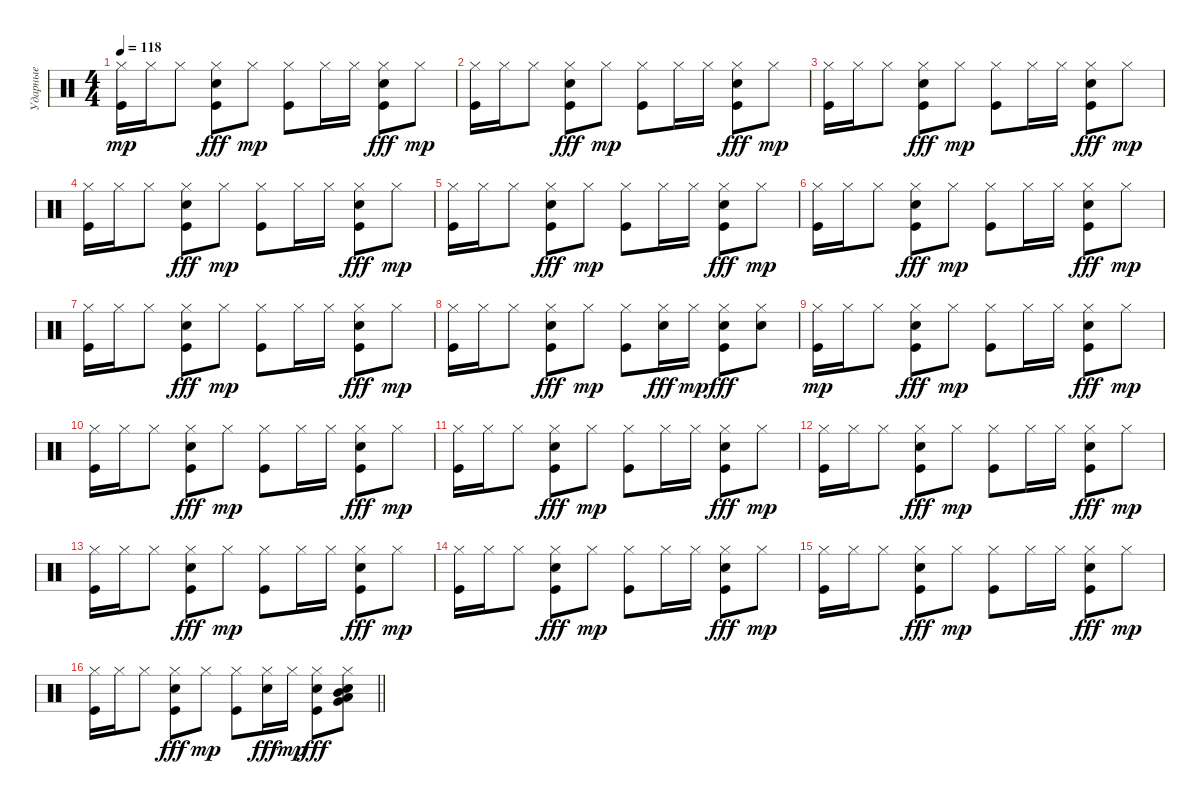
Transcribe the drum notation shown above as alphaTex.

\track ("Ударные" "Ударные") {instrument percussion}
\staff {score}
\articulation defaults
\ts (4 4)
\tempo 118
\clef neutral
\ks c
("Kick (hit)" "Hi-Hat (closed)").16{dy mp} "Hi-Hat (closed)".16 "Hi-Hat (closed)".8 ("Kick (hit)" "Hi-Hat (closed)" "Electric Snare (hit)").8{dy fff} "Hi-Hat (closed)".8{dy mp} ("Kick (hit)" "Hi-Hat (closed)").8 "Hi-Hat (closed)".16 "Hi-Hat (closed)".16 ("Hi-Hat (closed)" "Kick (hit)" "Electric Snare (hit)").8{dy fff} "Hi-Hat (closed)".8{dy mp} |
("Kick (hit)" "Hi-Hat (closed)").16 "Hi-Hat (closed)".16 "Hi-Hat (closed)".8 ("Kick (hit)" "Hi-Hat (closed)" "Electric Snare (hit)").8{dy fff} "Hi-Hat (closed)".8{dy mp} ("Kick (hit)" "Hi-Hat (closed)").8 "Hi-Hat (closed)".16 "Hi-Hat (closed)".16 ("Hi-Hat (closed)" "Kick (hit)" "Electric Snare (hit)").8{dy fff} "Hi-Hat (closed)".8{dy mp} |
("Kick (hit)" "Hi-Hat (closed)").16 "Hi-Hat (closed)".16 "Hi-Hat (closed)".8 ("Kick (hit)" "Hi-Hat (closed)" "Electric Snare (hit)").8{dy fff} "Hi-Hat (closed)".8{dy mp} ("Kick (hit)" "Hi-Hat (closed)").8 "Hi-Hat (closed)".16 "Hi-Hat (closed)".16 ("Hi-Hat (closed)" "Kick (hit)" "Electric Snare (hit)").8{dy fff} "Hi-Hat (closed)".8{dy mp} |
("Kick (hit)" "Hi-Hat (closed)").16 "Hi-Hat (closed)".16 "Hi-Hat (closed)".8 ("Kick (hit)" "Hi-Hat (closed)" "Electric Snare (hit)").8{dy fff} "Hi-Hat (closed)".8{dy mp} ("Kick (hit)" "Hi-Hat (closed)").8 "Hi-Hat (closed)".16 "Hi-Hat (closed)".16 ("Hi-Hat (closed)" "Kick (hit)" "Electric Snare (hit)").8{dy fff} "Hi-Hat (closed)".8{dy mp} |
("Kick (hit)" "Hi-Hat (closed)").16 "Hi-Hat (closed)".16 "Hi-Hat (closed)".8 ("Kick (hit)" "Hi-Hat (closed)" "Electric Snare (hit)").8{dy fff} "Hi-Hat (closed)".8{dy mp} ("Kick (hit)" "Hi-Hat (closed)").8 "Hi-Hat (closed)".16 "Hi-Hat (closed)".16 ("Hi-Hat (closed)" "Kick (hit)" "Electric Snare (hit)").8{dy fff} "Hi-Hat (closed)".8{dy mp} |
("Kick (hit)" "Hi-Hat (closed)").16 "Hi-Hat (closed)".16 "Hi-Hat (closed)".8 ("Kick (hit)" "Hi-Hat (closed)" "Electric Snare (hit)").8{dy fff} "Hi-Hat (closed)".8{dy mp} ("Kick (hit)" "Hi-Hat (closed)").8 "Hi-Hat (closed)".16 "Hi-Hat (closed)".16 ("Hi-Hat (closed)" "Kick (hit)" "Electric Snare (hit)").8{dy fff} "Hi-Hat (closed)".8{dy mp} |
("Kick (hit)" "Hi-Hat (closed)").16 "Hi-Hat (closed)".16 "Hi-Hat (closed)".8 ("Kick (hit)" "Hi-Hat (closed)" "Electric Snare (hit)").8{dy fff} "Hi-Hat (closed)".8{dy mp} ("Kick (hit)" "Hi-Hat (closed)").8 "Hi-Hat (closed)".16 "Hi-Hat (closed)".16 ("Hi-Hat (closed)" "Kick (hit)" "Electric Snare (hit)").8{dy fff} "Hi-Hat (closed)".8{dy mp} |
("Kick (hit)" "Hi-Hat (closed)").16 "Hi-Hat (closed)".16 "Hi-Hat (closed)".8 ("Kick (hit)" "Hi-Hat (closed)" "Electric Snare (hit)").8{dy fff} "Hi-Hat (closed)".8{dy mp} ("Kick (hit)" "Hi-Hat (closed)").8 ("Hi-Hat (closed)" "Electric Snare (hit)").16{dy fff} "Hi-Hat (closed)".16{dy mp} ("Hi-Hat (closed)" "Kick (hit)" "Electric Snare (hit)").8{dy fff} ("Hi-Hat (closed)" "Electric Snare (hit)").8 |
("Kick (hit)" "Hi-Hat (closed)").16{dy mp} "Hi-Hat (closed)".16 "Hi-Hat (closed)".8 ("Kick (hit)" "Hi-Hat (closed)" "Electric Snare (hit)").8{dy fff} "Hi-Hat (closed)".8{dy mp} ("Kick (hit)" "Hi-Hat (closed)").8 "Hi-Hat (closed)".16 "Hi-Hat (closed)".16 ("Hi-Hat (closed)" "Kick (hit)" "Electric Snare (hit)").8{dy fff} "Hi-Hat (closed)".8{dy mp} |
("Kick (hit)" "Hi-Hat (closed)").16 "Hi-Hat (closed)".16 "Hi-Hat (closed)".8 ("Kick (hit)" "Hi-Hat (closed)" "Electric Snare (hit)").8{dy fff} "Hi-Hat (closed)".8{dy mp} ("Kick (hit)" "Hi-Hat (closed)").8 "Hi-Hat (closed)".16 "Hi-Hat (closed)".16 ("Hi-Hat (closed)" "Kick (hit)" "Electric Snare (hit)").8{dy fff} "Hi-Hat (closed)".8{dy mp} |
("Kick (hit)" "Hi-Hat (closed)").16 "Hi-Hat (closed)".16 "Hi-Hat (closed)".8 ("Kick (hit)" "Hi-Hat (closed)" "Electric Snare (hit)").8{dy fff} "Hi-Hat (closed)".8{dy mp} ("Kick (hit)" "Hi-Hat (closed)").8 "Hi-Hat (closed)".16 "Hi-Hat (closed)".16 ("Hi-Hat (closed)" "Kick (hit)" "Electric Snare (hit)").8{dy fff} "Hi-Hat (closed)".8{dy mp} |
("Kick (hit)" "Hi-Hat (closed)").16 "Hi-Hat (closed)".16 "Hi-Hat (closed)".8 ("Kick (hit)" "Hi-Hat (closed)" "Electric Snare (hit)").8{dy fff} "Hi-Hat (closed)".8{dy mp} ("Kick (hit)" "Hi-Hat (closed)").8 "Hi-Hat (closed)".16 "Hi-Hat (closed)".16 ("Hi-Hat (closed)" "Kick (hit)" "Electric Snare (hit)").8{dy fff} "Hi-Hat (closed)".8{dy mp} |
("Kick (hit)" "Hi-Hat (closed)").16 "Hi-Hat (closed)".16 "Hi-Hat (closed)".8 ("Kick (hit)" "Hi-Hat (closed)" "Electric Snare (hit)").8{dy fff} "Hi-Hat (closed)".8{dy mp} ("Kick (hit)" "Hi-Hat (closed)").8 "Hi-Hat (closed)".16 "Hi-Hat (closed)".16 ("Hi-Hat (closed)" "Kick (hit)" "Electric Snare (hit)").8{dy fff} "Hi-Hat (closed)".8{dy mp} |
("Kick (hit)" "Hi-Hat (closed)").16 "Hi-Hat (closed)".16 "Hi-Hat (closed)".8 ("Kick (hit)" "Hi-Hat (closed)" "Electric Snare (hit)").8{dy fff} "Hi-Hat (closed)".8{dy mp} ("Kick (hit)" "Hi-Hat (closed)").8 "Hi-Hat (closed)".16 "Hi-Hat (closed)".16 ("Hi-Hat (closed)" "Kick (hit)" "Electric Snare (hit)").8{dy fff} "Hi-Hat (closed)".8{dy mp} |
("Kick (hit)" "Hi-Hat (closed)").16 "Hi-Hat (closed)".16 "Hi-Hat (closed)".8 ("Kick (hit)" "Hi-Hat (closed)" "Electric Snare (hit)").8{dy fff} "Hi-Hat (closed)".8{dy mp} ("Kick (hit)" "Hi-Hat (closed)").8 "Hi-Hat (closed)".16 "Hi-Hat (closed)".16 ("Hi-Hat (closed)" "Kick (hit)" "Electric Snare (hit)").8{dy fff} "Hi-Hat (closed)".8{dy mp} |
\barLineRight lightlight
("Kick (hit)" "Hi-Hat (closed)").16 "Hi-Hat (closed)".16 "Hi-Hat (closed)".8 ("Kick (hit)" "Hi-Hat (closed)" "Electric Snare (hit)").8{dy fff} "Hi-Hat (closed)".8{dy mp} ("Kick (hit)" "Hi-Hat (closed)").8 ("Hi-Hat (closed)" "Electric Snare (hit)").16{dy fff} "Hi-Hat (closed)".16{dy mp} ("Hi-Hat (closed)" "Kick (hit)" "Electric Snare (hit)").8{dy fff} ("Hi-Hat (closed)" "Very Low Tom (hit)" "Mid Tom (hit)" "Low Tom (hit)" "Snare (hit) 2").8
